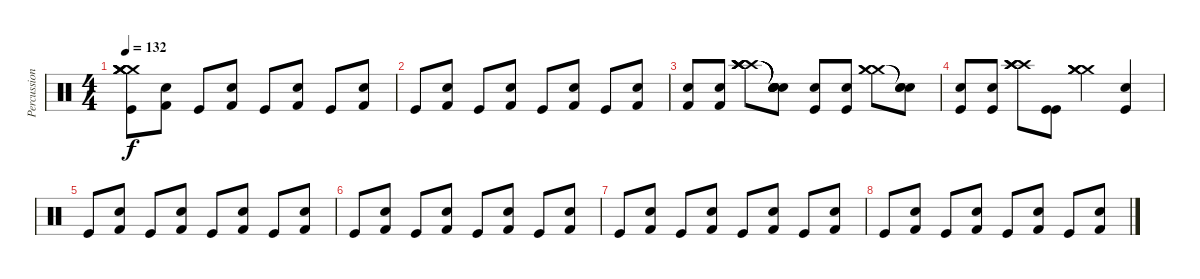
\track ("Percussion" "Percussion") {instrument percussion}
\staff {score}
\articulation defaults
\ts (4 4)
\tempo 132
\clef neutral
\ks c
("Kick (hit)" "Crash medium (hit)" "Crash medium (hit)" "Crash medium (hit)" "Crash medium (hit)" "Crash medium (hit)").8{dy f} ("Electric Snare (hit)" "Kick (hit) 2").8 "Kick (hit)".8 ("Electric Snare (hit)" "Kick (hit) 2").8 "Kick (hit)".8 ("Electric Snare (hit)" "Kick (hit) 2").8 "Kick (hit)".8 ("Electric Snare (hit)" "Kick (hit) 2").8 |
"Kick (hit)".8 ("Electric Snare (hit)" "Kick (hit) 2").8 "Kick (hit)".8 ("Electric Snare (hit)" "Kick (hit) 2").8 "Kick (hit)".8 ("Electric Snare (hit)" "Kick (hit) 2").8 "Kick (hit)".8 ("Electric Snare (hit)" "Kick (hit) 2").8 |
("Electric Snare (hit)" "Kick (hit) 2").8 ("Electric Snare (hit)" "Kick (hit) 2").8 ("Crash high (hit)" "Crash high (hit)" "Crash high (hit)" "Crash high (hit)" "Crash high (hit)" "Crash high (hit)").8 ("Snare (hit)"{t} "Snare (hit)"{t} "Snare (hit)"{t} "Snare (hit)"{t} "Snare (hit)"{t} "Snare (hit)"{t}).8 ("Electric Snare (hit)" "Kick (hit)").8 ("Electric Snare (hit)" "Kick (hit)").8 ("Crash medium (hit)" "Crash medium (hit)" "Crash medium (hit)").8 ("Snare (hit)"{t} "Snare (hit)"{t} "Snare (hit)"{t}).8 |
("Electric Snare (hit)" "Kick (hit)").8 ("Kick (hit)" "Electric Snare (hit)").8 ("Crash high (hit)" "Crash high (hit)" "Crash high (hit)" "Crash high (hit)").8 ("Kick (hit)" "Kick (hit)").8 ("Crash medium (hit)" "Crash medium (hit)" "Crash medium (hit)" "Crash medium (hit)").4 ("Kick (hit)" "Electric Snare (hit)").4 |
"Kick (hit)".8 ("Electric Snare (hit)" "Kick (hit) 2").8 "Kick (hit)".8 ("Electric Snare (hit)" "Kick (hit) 2").8 "Kick (hit)".8 ("Electric Snare (hit)" "Kick (hit) 2").8 "Kick (hit)".8 ("Electric Snare (hit)" "Kick (hit) 2").8 |
"Kick (hit)".8 ("Electric Snare (hit)" "Kick (hit) 2").8 "Kick (hit)".8 ("Electric Snare (hit)" "Kick (hit) 2").8 "Kick (hit)".8 ("Electric Snare (hit)" "Kick (hit) 2").8 "Kick (hit)".8 ("Electric Snare (hit)" "Kick (hit) 2").8 |
"Kick (hit)".8 ("Electric Snare (hit)" "Kick (hit) 2").8 "Kick (hit)".8 ("Electric Snare (hit)" "Kick (hit) 2").8 "Kick (hit)".8 ("Electric Snare (hit)" "Kick (hit) 2").8 "Kick (hit)".8 ("Electric Snare (hit)" "Kick (hit) 2").8 |
"Kick (hit)".8 ("Electric Snare (hit)" "Kick (hit) 2").8 "Kick (hit)".8 ("Electric Snare (hit)" "Kick (hit) 2").8 "Kick (hit)".8 ("Electric Snare (hit)" "Kick (hit) 2").8 "Kick (hit)".8 ("Electric Snare (hit)" "Kick (hit) 2").8
